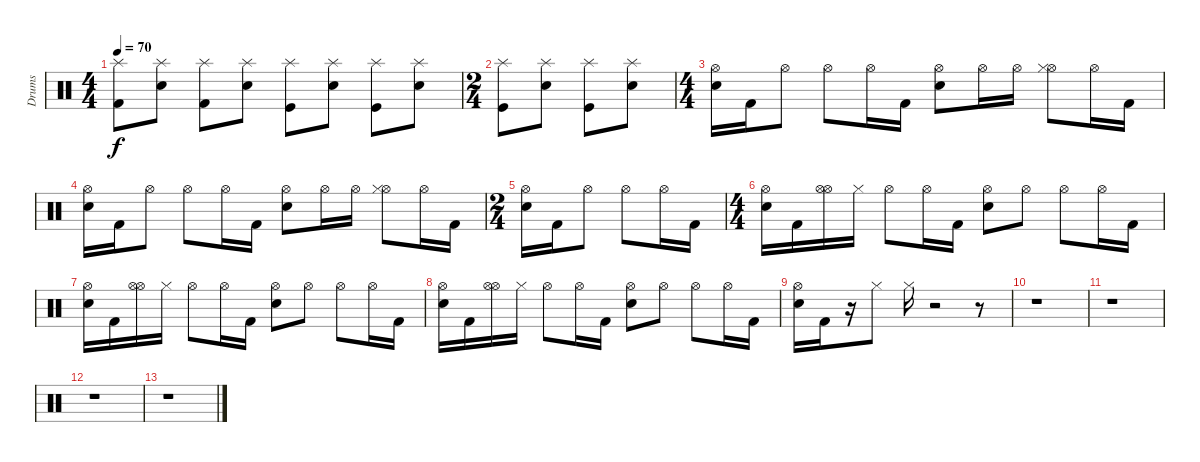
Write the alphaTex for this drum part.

\track ("Drums" "Drums") {instrument percussion}
\staff {score}
\articulation defaults
\ts (4 4)
\tempo 70
\clef neutral
\ks c
("Splash (hit)" "Kick (hit) 2").8{dy f} ("Splash (hit)" "Snare (hit) 2").8 ("Splash (hit)" "Kick (hit) 2").8 ("Splash (hit)" "Snare (hit) 2").8 ("Splash (hit)" "Kick (hit)").8 ("Splash (hit)" "Snare (hit) 2").8 ("Splash (hit)" "Kick (hit)").8 ("Splash (hit)" "Snare (hit) 2").8 |
\ts (2 4)
("Splash (hit)" "Kick (hit)").8 ("Splash (hit)" "Snare (hit) 2").8 ("Splash (hit)" "Kick (hit)").8 ("Splash (hit)" "Snare (hit) 2").8 |
\ts (4 4)
("Hi-Hat (open)" "Snare (hit) 2").16 "Kick (hit) 2".16 "Hi-Hat (open)".8 "Hi-Hat (open)".8 "Hi-Hat (open)".16 "Kick (hit) 2".16 ("Hi-Hat (open)" "Snare (hit) 2").8 "Hi-Hat (open)".16 "Hi-Hat (open)".16 ("Hi-Hat (open)" "Hi-Hat (closed)").8 "Hi-Hat (open)".16 "Kick (hit) 2".16 |
("Hi-Hat (open)" "Snare (hit) 2").16 "Kick (hit) 2".16 "Hi-Hat (open)".8 "Hi-Hat (open)".8 "Hi-Hat (open)".16 "Kick (hit) 2".16 ("Hi-Hat (open)" "Snare (hit) 2").8 "Hi-Hat (open)".16 "Hi-Hat (open)".16 ("Hi-Hat (open)" "Hi-Hat (closed)").8 "Hi-Hat (open)".16 "Kick (hit) 2".16 |
\ts (2 4)
("Hi-Hat (open)" "Snare (hit) 2").16 "Kick (hit) 2".16 "Hi-Hat (open)".8 "Hi-Hat (open)".8 "Hi-Hat (open)".16 "Kick (hit) 2".16 |
\ts (4 4)
("Hi-Hat (open)" "Snare (hit) 2").16 "Kick (hit) 2".16 ("Hi-Hat (open)" "Hi-Hat (open)").16 "Hi-Hat (closed)".16 "Hi-Hat (open)".8 "Hi-Hat (open)".16 "Kick (hit) 2".16 ("Hi-Hat (open)" "Snare (hit) 2").8 "Hi-Hat (open)".8 "Hi-Hat (open)".8 "Hi-Hat (open)".16 "Kick (hit) 2".16 |
("Hi-Hat (open)" "Snare (hit) 2").16 "Kick (hit) 2".16 ("Hi-Hat (open)" "Hi-Hat (open)").16 "Hi-Hat (closed)".16 "Hi-Hat (open)".8 "Hi-Hat (open)".16 "Kick (hit) 2".16 ("Hi-Hat (open)" "Snare (hit) 2").8 "Hi-Hat (open)".8 "Hi-Hat (open)".8 "Hi-Hat (open)".16 "Kick (hit) 2".16 |
("Hi-Hat (open)" "Snare (hit) 2").16 "Kick (hit) 2".16 ("Hi-Hat (open)" "Hi-Hat (open)").16 "Hi-Hat (closed)".16 "Hi-Hat (open)".8 "Hi-Hat (open)".16 "Kick (hit) 2".16 ("Hi-Hat (open)" "Snare (hit) 2").8 "Hi-Hat (open)".8 "Hi-Hat (open)".8 "Hi-Hat (open)".16 "Kick (hit) 2".16 |
("Hi-Hat (open)" "Snare (hit) 2").16 "Kick (hit) 2".16 r.16 "Hi-Hat (closed)".8 "Hi-Hat (closed)".16 r.2 r.8 |
r.1 |
r.1 |
r.1 |
r.1
